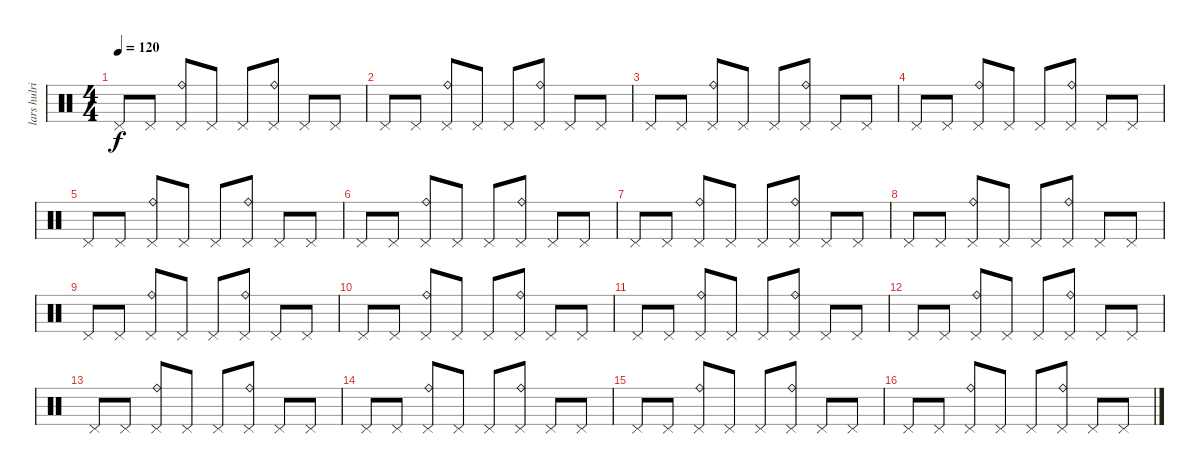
\track ("lars hulrich" "lars hulri") {instrument percussion}
\staff {score}
\articulation defaults
\ts (4 4)
\tempo 120
\clef neutral
\ks c "Pedal Hi-Hat (hit)".8{dy f} "Pedal Hi-Hat (hit)".8
("Pedal Hi-Hat (hit)" "Ride (bell)").8 "Pedal Hi-Hat (hit)".8 "Pedal Hi-Hat (hit)".8 ("Pedal Hi-Hat (hit)" "Ride (bell)").8 "Pedal Hi-Hat (hit)".8 "Pedal Hi-Hat (hit)".8 |
"Pedal Hi-Hat (hit)".8 "Pedal Hi-Hat (hit)".8 ("Pedal Hi-Hat (hit)" "Ride (bell)").8 "Pedal Hi-Hat (hit)".8 "Pedal Hi-Hat (hit)".8 ("Pedal Hi-Hat (hit)" "Ride (bell)").8 "Pedal Hi-Hat (hit)".8 "Pedal Hi-Hat (hit)".8 |
"Pedal Hi-Hat (hit)".8 "Pedal Hi-Hat (hit)".8 ("Pedal Hi-Hat (hit)" "Ride (bell)").8 "Pedal Hi-Hat (hit)".8 "Pedal Hi-Hat (hit)".8 ("Pedal Hi-Hat (hit)" "Ride (bell)").8 "Pedal Hi-Hat (hit)".8 "Pedal Hi-Hat (hit)".8 |
"Pedal Hi-Hat (hit)".8 "Pedal Hi-Hat (hit)".8 ("Pedal Hi-Hat (hit)" "Ride (bell)").8 "Pedal Hi-Hat (hit)".8 "Pedal Hi-Hat (hit)".8 ("Pedal Hi-Hat (hit)" "Ride (bell)").8 "Pedal Hi-Hat (hit)".8 "Pedal Hi-Hat (hit)".8 |
"Pedal Hi-Hat (hit)".8 "Pedal Hi-Hat (hit)".8 ("Pedal Hi-Hat (hit)" "Ride (bell)").8 "Pedal Hi-Hat (hit)".8 "Pedal Hi-Hat (hit)".8 ("Pedal Hi-Hat (hit)" "Ride (bell)").8 "Pedal Hi-Hat (hit)".8 "Pedal Hi-Hat (hit)".8 |
"Pedal Hi-Hat (hit)".8 "Pedal Hi-Hat (hit)".8 ("Pedal Hi-Hat (hit)" "Ride (bell)").8 "Pedal Hi-Hat (hit)".8 "Pedal Hi-Hat (hit)".8 ("Pedal Hi-Hat (hit)" "Ride (bell)").8 "Pedal Hi-Hat (hit)".8 "Pedal Hi-Hat (hit)".8 |
"Pedal Hi-Hat (hit)".8 "Pedal Hi-Hat (hit)".8 ("Pedal Hi-Hat (hit)" "Ride (bell)").8 "Pedal Hi-Hat (hit)".8 "Pedal Hi-Hat (hit)".8 ("Pedal Hi-Hat (hit)" "Ride (bell)").8 "Pedal Hi-Hat (hit)".8 "Pedal Hi-Hat (hit)".8 |
"Pedal Hi-Hat (hit)".8 "Pedal Hi-Hat (hit)".8 ("Pedal Hi-Hat (hit)" "Ride (bell)").8 "Pedal Hi-Hat (hit)".8 "Pedal Hi-Hat (hit)".8 ("Pedal Hi-Hat (hit)" "Ride (bell)").8 "Pedal Hi-Hat (hit)".8 "Pedal Hi-Hat (hit)".8 |
"Pedal Hi-Hat (hit)".8 "Pedal Hi-Hat (hit)".8 ("Pedal Hi-Hat (hit)" "Ride (bell)").8 "Pedal Hi-Hat (hit)".8 "Pedal Hi-Hat (hit)".8 ("Pedal Hi-Hat (hit)" "Ride (bell)").8 "Pedal Hi-Hat (hit)".8 "Pedal Hi-Hat (hit)".8 |
"Pedal Hi-Hat (hit)".8 "Pedal Hi-Hat (hit)".8 ("Pedal Hi-Hat (hit)" "Ride (bell)").8 "Pedal Hi-Hat (hit)".8 "Pedal Hi-Hat (hit)".8 ("Pedal Hi-Hat (hit)" "Ride (bell)").8 "Pedal Hi-Hat (hit)".8 "Pedal Hi-Hat (hit)".8 |
"Pedal Hi-Hat (hit)".8 "Pedal Hi-Hat (hit)".8 ("Pedal Hi-Hat (hit)" "Ride (bell)").8 "Pedal Hi-Hat (hit)".8 "Pedal Hi-Hat (hit)".8 ("Pedal Hi-Hat (hit)" "Ride (bell)").8 "Pedal Hi-Hat (hit)".8 "Pedal Hi-Hat (hit)".8 |
"Pedal Hi-Hat (hit)".8 "Pedal Hi-Hat (hit)".8 ("Pedal Hi-Hat (hit)" "Ride (bell)").8 "Pedal Hi-Hat (hit)".8 "Pedal Hi-Hat (hit)".8 ("Pedal Hi-Hat (hit)" "Ride (bell)").8 "Pedal Hi-Hat (hit)".8 "Pedal Hi-Hat (hit)".8 |
"Pedal Hi-Hat (hit)".8 "Pedal Hi-Hat (hit)".8 ("Pedal Hi-Hat (hit)" "Ride (bell)").8 "Pedal Hi-Hat (hit)".8 "Pedal Hi-Hat (hit)".8 ("Pedal Hi-Hat (hit)" "Ride (bell)").8 "Pedal Hi-Hat (hit)".8 "Pedal Hi-Hat (hit)".8 |
"Pedal Hi-Hat (hit)".8 "Pedal Hi-Hat (hit)".8 ("Pedal Hi-Hat (hit)" "Ride (bell)").8 "Pedal Hi-Hat (hit)".8 "Pedal Hi-Hat (hit)".8 ("Pedal Hi-Hat (hit)" "Ride (bell)").8 "Pedal Hi-Hat (hit)".8 "Pedal Hi-Hat (hit)".8 |
"Pedal Hi-Hat (hit)".8 "Pedal Hi-Hat (hit)".8 ("Pedal Hi-Hat (hit)" "Ride (bell)").8 "Pedal Hi-Hat (hit)".8 "Pedal Hi-Hat (hit)".8 ("Pedal Hi-Hat (hit)" "Ride (bell)").8 "Pedal Hi-Hat (hit)".8 "Pedal Hi-Hat (hit)".8 |
"Pedal Hi-Hat (hit)".8 "Pedal Hi-Hat (hit)".8 ("Pedal Hi-Hat (hit)" "Ride (bell)").8 "Pedal Hi-Hat (hit)".8 "Pedal Hi-Hat (hit)".8 ("Pedal Hi-Hat (hit)" "Ride (bell)").8 "Pedal Hi-Hat (hit)".8 "Pedal Hi-Hat (hit)".8
